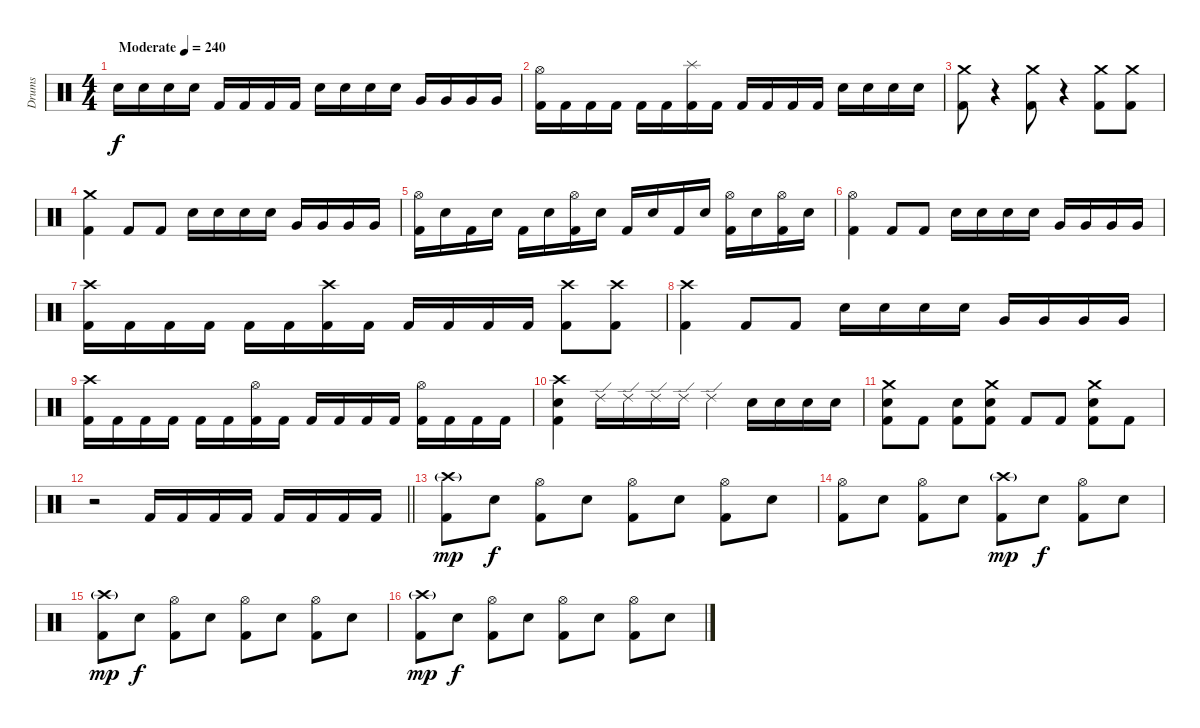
\track ("Drums" "Drums") {instrument percussion}
\staff {score}
\articulation defaults
\ts (4 4)
\section ("" "")
\tempo (240 "Moderate")
\clef neutral
\ks c "Snare (hit) 2".16{dy f} "Snare (hit) 2".16 "Snare (hit) 2".16 "Snare (hit) 2".16 "Kick (hit) 2".16 "Kick (hit) 2".16 "Kick (hit) 2".16 "Kick (hit) 2".16 "Snare (hit) 2".16 "Snare (hit) 2".16 "Snare (hit) 2".16 "Snare (hit) 2".16 "Very Low Tom (hit)".16 "Very Low Tom (hit)".16 "Very Low Tom (hit)".16 "Very Low Tom (hit)".16
|
("Hi-Hat (open)" "Kick (hit) 2").16 "Kick (hit) 2".16 "Kick (hit) 2".16 "Kick (hit) 2".16 "Kick (hit) 2".16 "Kick (hit) 2".16 ("Splash (hit)" "Kick (hit) 2").16 "Kick (hit) 2".16 "Kick (hit) 2".16 "Kick (hit) 2".16 "Kick (hit) 2".16 "Kick (hit) 2".16 "Snare (hit) 2".16 "Snare (hit) 2".16 "Snare (hit) 2".16 "Snare (hit) 2".16 |
("Kick (hit) 2" "Crash medium (hit)").8{volume 8} r.4{volume 0} ("Kick (hit) 2" "Crash medium (hit)").8{volume 8} r.4{volume 0} ("Kick (hit) 2" "Crash medium (hit)").8{volume 8} ("Kick (hit) 2" "Crash medium (hit)").8 |
("Kick (hit) 2" "Crash medium (hit)").4 "Kick (hit) 2".8 "Kick (hit) 2".8 "Snare (hit) 2".16 "Snare (hit) 2".16 "Snare (hit) 2".16 "Snare (hit) 2".16 "Very Low Tom (hit)".16 "Very Low Tom (hit)".16 "Very Low Tom (hit)".16 "Very Low Tom (hit)".16 |
("Hi-Hat (open)" "Kick (hit) 2").16 "Snare (hit) 2".16 "Kick (hit) 2".16 "Snare (hit) 2".16 "Kick (hit) 2".16 "Snare (hit) 2".16 ("Hi-Hat (open)" "Kick (hit) 2").16 "Snare (hit) 2".16 "Kick (hit) 2".16 "Snare (hit) 2".16 "Kick (hit) 2".16 "Snare (hit) 2".16 ("Hi-Hat (open)" "Kick (hit) 2").16 "Snare (hit) 2".16 ("Hi-Hat (open)" "Kick (hit) 2").16 "Snare (hit) 2".16 |
("Hi-Hat (open)" "Kick (hit) 2").4 "Kick (hit) 2".8 "Kick (hit) 2".8 "Snare (hit) 2".16 "Snare (hit) 2".16 "Snare (hit) 2".16 "Snare (hit) 2".16 "Very Low Tom (hit)".16 "Very Low Tom (hit)".16 "Very Low Tom (hit)".16 "Very Low Tom (hit)".16 |
("Crash high (hit)" "Kick (hit) 2").16 "Kick (hit) 2".16 "Kick (hit) 2".16 "Kick (hit) 2".16 "Kick (hit) 2".16 "Kick (hit) 2".16 ("Crash high (hit)" "Kick (hit) 2").16 "Kick (hit) 2".16 "Kick (hit) 2".16 "Kick (hit) 2".16 "Kick (hit) 2".16 "Kick (hit) 2".16 ("Crash high (hit)" "Kick (hit) 2").8 ("Crash high (hit)" "Kick (hit) 2").8 |
("Crash high (hit)" "Kick (hit) 2").4 "Kick (hit) 2".8 "Kick (hit) 2".8 "Snare (hit) 2".16 "Snare (hit) 2".16 "Snare (hit) 2".16 "Snare (hit) 2".16 "Very Low Tom (hit)".16 "Very Low Tom (hit)".16 "Very Low Tom (hit)".16 "Very Low Tom (hit)".16 |
("Crash high (hit)" "Kick (hit) 2").16 "Kick (hit) 2".16 "Kick (hit) 2".16 "Kick (hit) 2".16 "Kick (hit) 2".16 "Kick (hit) 2".16 ("Hi-Hat (open)" "Kick (hit) 2").16 "Kick (hit) 2".16 "Kick (hit) 2".16 "Kick (hit) 2".16 "Kick (hit) 2".16 "Kick (hit) 2".16 ("Hi-Hat (open)" "Kick (hit) 2").16 "Kick (hit) 2".16 "Kick (hit) 2".16 "Kick (hit) 2".16 |
("Crash high (hit)" "Snare (hit) 2" "Kick (hit) 2").4 "Ride (edge) 2".16 "Ride (edge) 2".16 "Ride (edge) 2".16 "Ride (edge) 2".16 "Ride (edge) 2".4 "Snare (hit) 2".16 "Snare (hit) 2".16 "Snare (hit) 2".16 "Snare (hit) 2".16 |
("Crash medium (hit)" "Snare (hit) 2" "Kick (hit) 2").8 "Kick (hit) 2".8 ("Snare (hit) 2" "Kick (hit) 2").8 ("Crash medium (hit)" "Snare (hit) 2" "Kick (hit) 2").8 "Kick (hit) 2".8 "Kick (hit) 2".8 ("Crash medium (hit)" "Snare (hit) 2" "Kick (hit) 2").8 "Kick (hit) 2".8 |
\barLineRight lightlight
r.2 "Kick (hit) 2".16 "Kick (hit) 2".16 "Kick (hit) 2".16 "Kick (hit) 2".16 "Kick (hit) 2".16 "Kick (hit) 2".16 "Kick (hit) 2".16 "Kick (hit) 2".16 |
\section ("" "")
("Crash high (hit)"{g} "Kick (hit) 2").8{dy mp} "Snare (hit) 2".8{dy f} ("Hi-Hat (open)" "Kick (hit) 2").8 "Snare (hit) 2".8 ("Hi-Hat (open)" "Kick (hit) 2").8 "Snare (hit) 2".8 ("Hi-Hat (open)" "Kick (hit) 2").8 "Snare (hit) 2".8 |
("Hi-Hat (open)" "Kick (hit) 2").8 "Snare (hit) 2".8 ("Hi-Hat (open)" "Kick (hit) 2").8 "Snare (hit) 2".8 ("Crash high (hit)"{g} "Kick (hit) 2").8{dy mp} "Snare (hit) 2".8{dy f} ("Hi-Hat (open)" "Kick (hit) 2").8 "Snare (hit) 2".8 |
("Crash high (hit)"{g} "Kick (hit) 2").8{dy mp} "Snare (hit) 2".8{dy f} ("Hi-Hat (open)" "Kick (hit) 2").8 "Snare (hit) 2".8 ("Hi-Hat (open)" "Kick (hit) 2").8 "Snare (hit) 2".8 ("Hi-Hat (open)" "Kick (hit) 2").8 "Snare (hit) 2".8 |
("Crash high (hit)"{g} "Kick (hit) 2").8{dy mp} "Snare (hit) 2".8{dy f} ("Hi-Hat (open)" "Kick (hit) 2").8 "Snare (hit) 2".8 ("Hi-Hat (open)" "Kick (hit) 2").8 "Snare (hit) 2".8 ("Hi-Hat (open)" "Kick (hit) 2").8 "Snare (hit) 2".8
